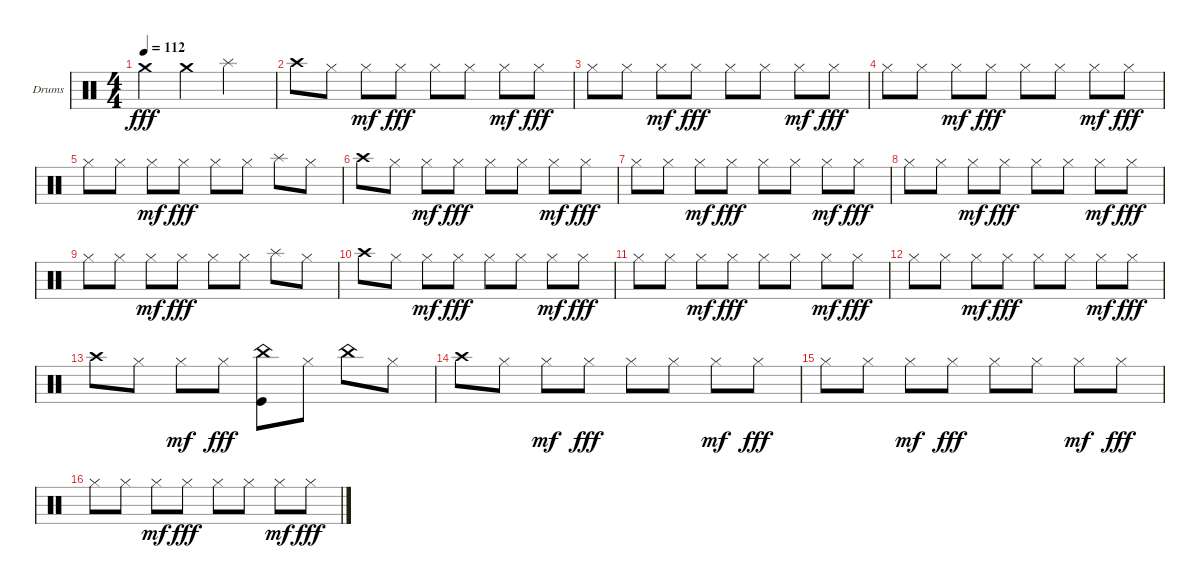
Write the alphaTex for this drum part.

\defaultSystemsLayout 4
\bracketExtendMode groupsimilarinstruments
\firstSystemTrackNameOrientation horizontal
\otherSystemsTrackNameOrientation horizontal
\track ("Пашок" "Drums") {instrument percussion}
\staff {score}
\articulation defaults
\ts (4 4)
\tempo 112
\clef neutral
\ks c "Crash medium (hit)".4{dy fff} "Crash medium (hit)".4 "Splash (hit)".2
|
"Crash high (hit)".8 "Hi-Hat (closed)".8 "Hi-Hat (closed)".8{dy mf} "Hi-Hat (closed)".8{dy fff} "Hi-Hat (closed)".8 "Hi-Hat (closed)".8 "Hi-Hat (closed)".8{dy mf} "Hi-Hat (closed)".8{dy fff} |
"Hi-Hat (closed)".8 "Hi-Hat (closed)".8 "Hi-Hat (closed)".8{dy mf} "Hi-Hat (closed)".8{dy fff} "Hi-Hat (closed)".8 "Hi-Hat (closed)".8 "Hi-Hat (closed)".8{dy mf} "Hi-Hat (closed)".8{dy fff} |
"Hi-Hat (closed)".8 "Hi-Hat (closed)".8 "Hi-Hat (closed)".8{dy mf} "Hi-Hat (closed)".8{dy fff} "Hi-Hat (closed)".8 "Hi-Hat (closed)".8 "Hi-Hat (closed)".8{dy mf} "Hi-Hat (closed)".8{dy fff} |
"Hi-Hat (closed)".8 "Hi-Hat (closed)".8 "Hi-Hat (closed)".8{dy mf} "Hi-Hat (closed)".8{dy fff} "Hi-Hat (closed)".8 "Hi-Hat (closed)".8 "Splash (hit)".8 "Hi-Hat (closed)".8 |
"Crash high (hit)".8 "Hi-Hat (closed)".8 "Hi-Hat (closed)".8{dy mf} "Hi-Hat (closed)".8{dy fff} "Hi-Hat (closed)".8 "Hi-Hat (closed)".8 "Hi-Hat (closed)".8{dy mf} "Hi-Hat (closed)".8{dy fff} |
"Hi-Hat (closed)".8 "Hi-Hat (closed)".8 "Hi-Hat (closed)".8{dy mf} "Hi-Hat (closed)".8{dy fff} "Hi-Hat (closed)".8 "Hi-Hat (closed)".8 "Hi-Hat (closed)".8{dy mf} "Hi-Hat (closed)".8{dy fff} |
"Hi-Hat (closed)".8 "Hi-Hat (closed)".8 "Hi-Hat (closed)".8{dy mf} "Hi-Hat (closed)".8{dy fff} "Hi-Hat (closed)".8 "Hi-Hat (closed)".8 "Hi-Hat (closed)".8{dy mf} "Hi-Hat (closed)".8{dy fff} |
"Hi-Hat (closed)".8 "Hi-Hat (closed)".8 "Hi-Hat (closed)".8{dy mf} "Hi-Hat (closed)".8{dy fff} "Hi-Hat (closed)".8 "Hi-Hat (closed)".8 "Splash (hit)".8 "Hi-Hat (closed)".8 |
"Crash high (hit)".8 "Hi-Hat (closed)".8 "Hi-Hat (closed)".8{dy mf} "Hi-Hat (closed)".8{dy fff} "Hi-Hat (closed)".8 "Hi-Hat (closed)".8 "Hi-Hat (closed)".8{dy mf} "Hi-Hat (closed)".8{dy fff} |
"Hi-Hat (closed)".8 "Hi-Hat (closed)".8 "Hi-Hat (closed)".8{dy mf} "Hi-Hat (closed)".8{dy fff} "Hi-Hat (closed)".8 "Hi-Hat (closed)".8 "Hi-Hat (closed)".8{dy mf} "Hi-Hat (closed)".8{dy fff} |
"Hi-Hat (closed)".8 "Hi-Hat (closed)".8 "Hi-Hat (closed)".8{dy mf} "Hi-Hat (closed)".8{dy fff} "Hi-Hat (closed)".8 "Hi-Hat (closed)".8 "Hi-Hat (closed)".8{dy mf} "Hi-Hat (closed)".8{dy fff} |
"Crash high (hit)".8 "Hi-Hat (closed)".8 "Hi-Hat (closed)".8{dy mf} "Hi-Hat (closed)".8{dy fff} ("China (hit)" "Kick (hit)").8 "Hi-Hat (closed)".8 "China (hit)".8 "Hi-Hat (closed)".8 |
"Crash high (hit)".8 "Hi-Hat (closed)".8 "Hi-Hat (closed)".8{dy mf} "Hi-Hat (closed)".8{dy fff} "Hi-Hat (closed)".8 "Hi-Hat (closed)".8 "Hi-Hat (closed)".8{dy mf} "Hi-Hat (closed)".8{dy fff} |
"Hi-Hat (closed)".8 "Hi-Hat (closed)".8 "Hi-Hat (closed)".8{dy mf} "Hi-Hat (closed)".8{dy fff} "Hi-Hat (closed)".8 "Hi-Hat (closed)".8 "Hi-Hat (closed)".8{dy mf} "Hi-Hat (closed)".8{dy fff} |
"Hi-Hat (closed)".8 "Hi-Hat (closed)".8 "Hi-Hat (closed)".8{dy mf} "Hi-Hat (closed)".8{dy fff} "Hi-Hat (closed)".8 "Hi-Hat (closed)".8 "Hi-Hat (closed)".8{dy mf} "Hi-Hat (closed)".8{dy fff}
